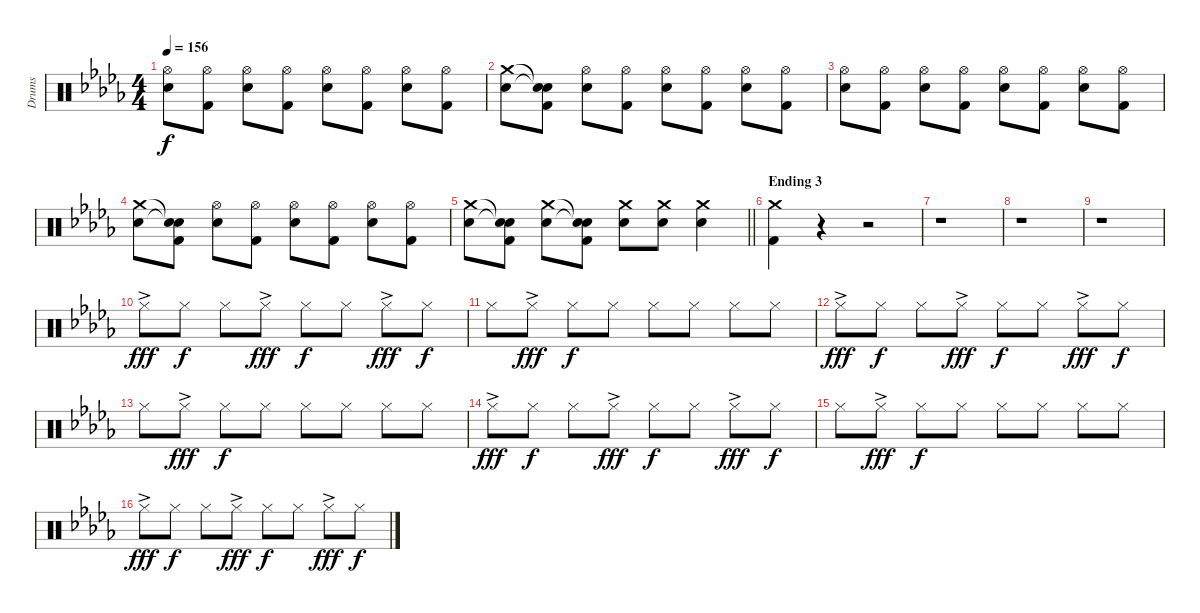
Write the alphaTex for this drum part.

\track ("Drums" "Drums") {instrument percussion}
\staff {score}
\articulation defaults
\ts (4 4)
\tempo 156
\clef neutral
\ks db
("Hi-Hat (open)" "Electric Snare (hit)").8{dy f} ("Hi-Hat (open)" "Kick (hit) 2").8 ("Hi-Hat (open)" "Electric Snare (hit)").8 ("Hi-Hat (open)" "Kick (hit) 2").8 ("Hi-Hat (open)" "Electric Snare (hit)").8 ("Hi-Hat (open)" "Kick (hit) 2").8 ("Hi-Hat (open)" "Electric Snare (hit)").8 ("Hi-Hat (open)" "Kick (hit) 2").8 |
("Crash medium (hit)" "Electric Snare (hit)").8 ("Snare (hit)"{t} "Snare (hit)"{t} "Kick (hit) 2").8 ("Hi-Hat (open)" "Electric Snare (hit)").8 ("Hi-Hat (open)" "Kick (hit) 2").8 ("Hi-Hat (open)" "Electric Snare (hit)").8 ("Hi-Hat (open)" "Kick (hit) 2").8 ("Hi-Hat (open)" "Electric Snare (hit)").8 ("Hi-Hat (open)" "Kick (hit) 2").8 |
("Hi-Hat (open)" "Electric Snare (hit)").8 ("Hi-Hat (open)" "Kick (hit) 2").8 ("Hi-Hat (open)" "Electric Snare (hit)").8 ("Hi-Hat (open)" "Kick (hit) 2").8 ("Hi-Hat (open)" "Electric Snare (hit)").8 ("Hi-Hat (open)" "Kick (hit) 2").8 ("Hi-Hat (open)" "Electric Snare (hit)").8 ("Hi-Hat (open)" "Kick (hit) 2").8 |
("Crash medium (hit)" "Electric Snare (hit)").8 ("Snare (hit)"{t} "Snare (hit)"{t} "Kick (hit) 2").8 ("Hi-Hat (open)" "Electric Snare (hit)").8 ("Hi-Hat (open)" "Kick (hit) 2").8 ("Hi-Hat (open)" "Electric Snare (hit)").8 ("Hi-Hat (open)" "Kick (hit) 2").8 ("Hi-Hat (open)" "Electric Snare (hit)").8 ("Hi-Hat (open)" "Kick (hit) 2").8 |
\barLineRight lightlight
("Crash medium (hit)" "Electric Snare (hit)").8 ("Snare (hit)"{t} "Snare (hit)"{t} "Kick (hit) 2").8 ("Crash medium (hit)" "Electric Snare (hit)").8 ("Snare (hit)"{t} "Snare (hit)"{t} "Kick (hit) 2").8 ("Crash medium (hit)" "Electric Snare (hit)").8 ("Crash medium (hit)" "Electric Snare (hit)").8 ("Crash medium (hit)" "Electric Snare (hit)").4 |
\section ("" "Ending 3")
("Crash medium (hit)" "Kick (hit) 2").4 r.4 r.2 |
r.1 |
r.1 |
r.1 |
"Hi-Hat (closed)"{ac}.8{dy fff} "Hi-Hat (closed)".8{dy f} "Hi-Hat (closed)".8 "Hi-Hat (closed)"{ac}.8{dy fff} "Hi-Hat (closed)".8{dy f} "Hi-Hat (closed)".8 "Hi-Hat (closed)"{ac}.8{dy fff} "Hi-Hat (closed)".8{dy f} |
"Hi-Hat (closed)".8 "Hi-Hat (closed)"{ac}.8{dy fff} "Hi-Hat (closed)".8{dy f} "Hi-Hat (closed)".8 "Hi-Hat (closed)".8 "Hi-Hat (closed)".8 "Hi-Hat (closed)".8 "Hi-Hat (closed)".8 |
"Hi-Hat (closed)"{ac}.8{dy fff} "Hi-Hat (closed)".8{dy f} "Hi-Hat (closed)".8 "Hi-Hat (closed)"{ac}.8{dy fff} "Hi-Hat (closed)".8{dy f} "Hi-Hat (closed)".8 "Hi-Hat (closed)"{ac}.8{dy fff} "Hi-Hat (closed)".8{dy f} |
"Hi-Hat (closed)".8 "Hi-Hat (closed)"{ac}.8{dy fff} "Hi-Hat (closed)".8{dy f} "Hi-Hat (closed)".8 "Hi-Hat (closed)".8 "Hi-Hat (closed)".8 "Hi-Hat (closed)".8 "Hi-Hat (closed)".8 |
"Hi-Hat (closed)"{ac}.8{dy fff} "Hi-Hat (closed)".8{dy f} "Hi-Hat (closed)".8 "Hi-Hat (closed)"{ac}.8{dy fff} "Hi-Hat (closed)".8{dy f} "Hi-Hat (closed)".8 "Hi-Hat (closed)"{ac}.8{dy fff} "Hi-Hat (closed)".8{dy f} |
"Hi-Hat (closed)".8 "Hi-Hat (closed)"{ac}.8{dy fff} "Hi-Hat (closed)".8{dy f} "Hi-Hat (closed)".8 "Hi-Hat (closed)".8 "Hi-Hat (closed)".8 "Hi-Hat (closed)".8 "Hi-Hat (closed)".8 |
"Hi-Hat (closed)"{ac}.8{dy fff} "Hi-Hat (closed)".8{dy f} "Hi-Hat (closed)".8 "Hi-Hat (closed)"{ac}.8{dy fff} "Hi-Hat (closed)".8{dy f} "Hi-Hat (closed)".8 "Hi-Hat (closed)"{ac}.8{dy fff} "Hi-Hat (closed)".8{dy f}
